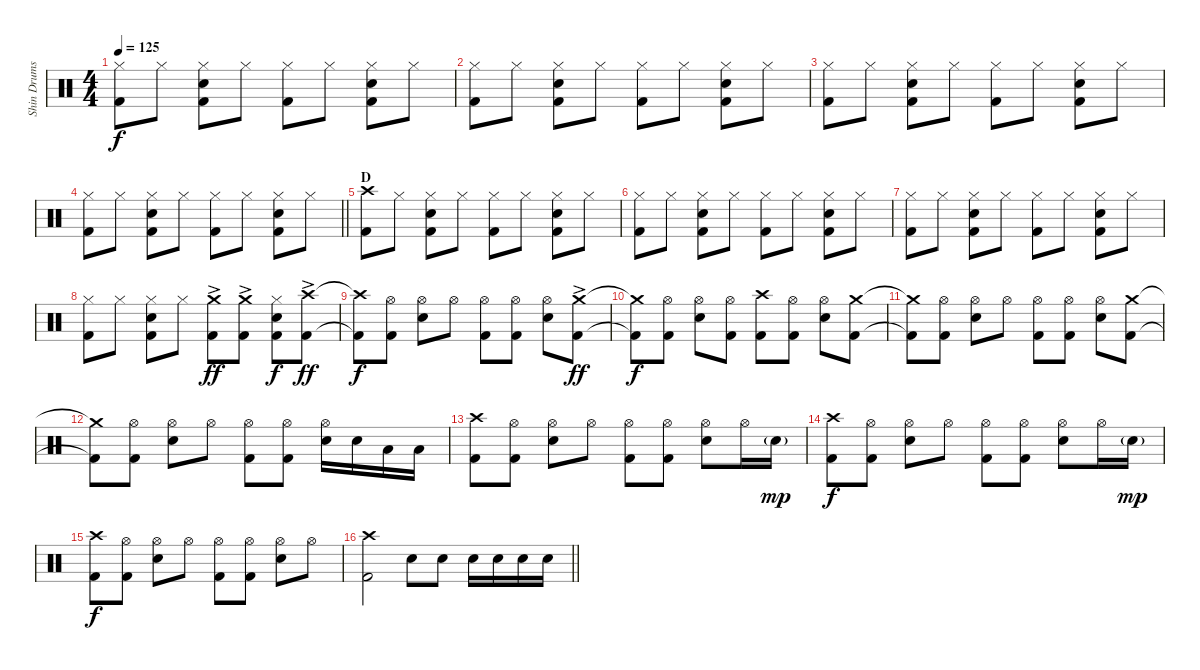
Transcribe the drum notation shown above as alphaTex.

\track ("Shin Drums" "Shin Drums") {instrument percussion}
\staff {score}
\articulation defaults
\ts (4 4)
\tempo 125
\clef neutral
\ks c
("Hi-Hat (closed)" "Kick (hit) 2").8{dy f} "Hi-Hat (closed)".8 ("Hi-Hat (closed)" "Snare (hit) 2" "Kick (hit) 2").8 "Hi-Hat (closed)".8 ("Hi-Hat (closed)" "Kick (hit) 2").8 "Hi-Hat (closed)".8 ("Hi-Hat (closed)" "Snare (hit) 2" "Kick (hit) 2").8 "Hi-Hat (closed)".8 |
("Hi-Hat (closed)" "Kick (hit) 2").8 "Hi-Hat (closed)".8 ("Hi-Hat (closed)" "Snare (hit) 2" "Kick (hit) 2").8 "Hi-Hat (closed)".8 ("Hi-Hat (closed)" "Kick (hit) 2").8 "Hi-Hat (closed)".8 ("Hi-Hat (closed)" "Snare (hit) 2" "Kick (hit) 2").8 "Hi-Hat (closed)".8 |
("Hi-Hat (closed)" "Kick (hit) 2").8 "Hi-Hat (closed)".8 ("Hi-Hat (closed)" "Snare (hit) 2" "Kick (hit) 2").8 "Hi-Hat (closed)".8 ("Hi-Hat (closed)" "Kick (hit) 2").8 "Hi-Hat (closed)".8 ("Hi-Hat (closed)" "Snare (hit) 2" "Kick (hit) 2").8 "Hi-Hat (closed)".8 |
\barLineRight lightlight
("Hi-Hat (closed)" "Kick (hit) 2").8 "Hi-Hat (closed)".8 ("Hi-Hat (closed)" "Snare (hit) 2" "Kick (hit) 2").8 "Hi-Hat (closed)".8 ("Hi-Hat (closed)" "Kick (hit) 2").8 "Hi-Hat (closed)".8 ("Hi-Hat (closed)" "Snare (hit) 2" "Kick (hit) 2").8 "Hi-Hat (closed)".8 |
\section ("" "D")
("Crash high (hit)" "Kick (hit) 2").8 "Hi-Hat (closed)".8 ("Hi-Hat (closed)" "Snare (hit) 2" "Kick (hit) 2").8 "Hi-Hat (closed)".8 ("Hi-Hat (closed)" "Kick (hit) 2").8 "Hi-Hat (closed)".8 ("Hi-Hat (closed)" "Snare (hit) 2" "Kick (hit) 2").8 "Hi-Hat (closed)".8 |
("Hi-Hat (closed)" "Kick (hit) 2").8 "Hi-Hat (closed)".8 ("Hi-Hat (closed)" "Snare (hit) 2" "Kick (hit) 2").8 "Hi-Hat (closed)".8 ("Hi-Hat (closed)" "Kick (hit) 2").8 "Hi-Hat (closed)".8 ("Hi-Hat (closed)" "Snare (hit) 2" "Kick (hit) 2").8 "Hi-Hat (closed)".8 |
("Hi-Hat (closed)" "Kick (hit) 2").8 "Hi-Hat (closed)".8 ("Hi-Hat (closed)" "Snare (hit) 2" "Kick (hit) 2").8 "Hi-Hat (closed)".8 ("Hi-Hat (closed)" "Kick (hit) 2").8 "Hi-Hat (closed)".8 ("Hi-Hat (closed)" "Snare (hit) 2" "Kick (hit) 2").8 "Hi-Hat (closed)".8 |
("Hi-Hat (closed)" "Kick (hit) 2").8 "Hi-Hat (closed)".8 ("Hi-Hat (closed)" "Snare (hit) 2" "Kick (hit) 2").8 "Hi-Hat (closed)".8 ("Crash medium (hit)"{ac} "Kick (hit) 2").8{dy ff} ("Crash medium (hit)"{ac} "Kick (hit) 2").8 ("Hi-Hat (closed)" "Snare (hit) 2" "Kick (hit) 2").8{dy f} ("Crash high (hit)"{ac} "Kick (hit) 2").8{dy ff} |
("Crash high (hit)"{t} "Kick (hit) 2"{t}).8{dy f} ("Hi-Hat (open)" "Kick (hit) 2").8 ("Hi-Hat (open)" "Snare (hit) 2").8 "Hi-Hat (open)".8 ("Hi-Hat (open)" "Kick (hit) 2").8 ("Hi-Hat (open)" "Kick (hit) 2").8 ("Hi-Hat (open)" "Snare (hit) 2").8 ("Crash medium (hit)"{ac} "Kick (hit) 2").8{dy ff} |
("Crash medium (hit)"{t} "Kick (hit) 2"{t}).8{dy f} ("Hi-Hat (open)" "Kick (hit) 2").8 ("Hi-Hat (open)" "Snare (hit) 2").8 ("Hi-Hat (open)" "Kick (hit) 2").8 ("Crash high (hit)" "Kick (hit) 2").8 ("Hi-Hat (open)" "Kick (hit) 2").8 ("Hi-Hat (open)" "Snare (hit) 2").8 ("Crash medium (hit)" "Kick (hit) 2").8 |
("Crash medium (hit)"{t} "Kick (hit) 2"{t}).8 ("Hi-Hat (open)" "Kick (hit) 2").8 ("Hi-Hat (open)" "Snare (hit) 2").8 "Hi-Hat (open)".8 ("Hi-Hat (open)" "Kick (hit) 2").8 ("Hi-Hat (open)" "Kick (hit) 2").8 ("Hi-Hat (open)" "Snare (hit) 2").8 ("Crash medium (hit)" "Kick (hit) 2").8 |
("Crash medium (hit)"{t} "Kick (hit) 2"{t}).8 ("Hi-Hat (open)" "Kick (hit) 2").8 ("Hi-Hat (open)" "Snare (hit) 2").8 "Hi-Hat (open)".8 ("Hi-Hat (open)" "Kick (hit) 2").8 ("Hi-Hat (open)" "Kick (hit) 2").8 ("Hi-Hat (open)" "Snare (hit) 2").16 "Snare (hit) 2".16 "Low Tom (hit)".16 "Low Tom (hit)".16 |
("Crash high (hit)" "Kick (hit) 2").8 ("Hi-Hat (open)" "Kick (hit) 2").8 ("Hi-Hat (open)" "Snare (hit) 2").8 "Hi-Hat (open)".8 ("Hi-Hat (open)" "Kick (hit) 2").8 ("Hi-Hat (open)" "Kick (hit) 2").8 ("Hi-Hat (open)" "Snare (hit) 2").8 "Hi-Hat (open)".16 "Snare (hit) 2"{g}.16{dy mp} |
("Crash high (hit)" "Kick (hit) 2").8{dy f} ("Hi-Hat (open)" "Kick (hit) 2").8 ("Hi-Hat (open)" "Snare (hit) 2").8 "Hi-Hat (open)".8 ("Hi-Hat (open)" "Kick (hit) 2").8 ("Hi-Hat (open)" "Kick (hit) 2").8 ("Hi-Hat (open)" "Snare (hit) 2").8 "Hi-Hat (open)".16 "Snare (hit) 2"{g}.16{dy mp} |
("Crash high (hit)" "Kick (hit) 2").8{dy f} ("Hi-Hat (open)" "Kick (hit) 2").8 ("Hi-Hat (open)" "Snare (hit) 2").8 "Hi-Hat (open)".8 ("Hi-Hat (open)" "Kick (hit) 2").8 ("Hi-Hat (open)" "Kick (hit) 2").8 ("Hi-Hat (open)" "Snare (hit) 2").8 "Hi-Hat (open)".8 |
\barLineRight lightlight
("Crash high (hit)" "Kick (hit) 2").2 "Snare (hit) 2".8 "Snare (hit) 2".8 "Snare (hit) 2".16 "Snare (hit) 2".16 "Snare (hit) 2".16 "Snare (hit) 2".16
